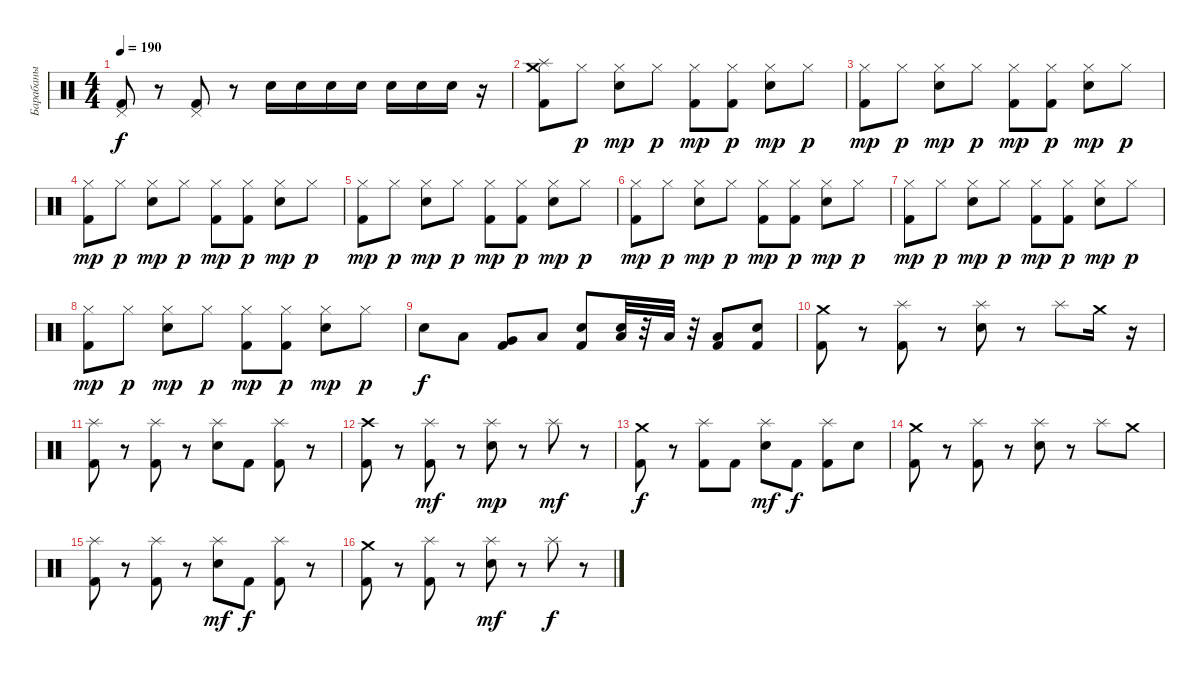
\track ("Барабаны" "Барабаны") {instrument percussion}
\staff {score}
\articulation defaults
\ts (4 4)
\tempo 190
\clef neutral
\ks c
("Pedal Hi-Hat (hit)" "Kick (hit) 2").8{dy f} r.8 ("Pedal Hi-Hat (hit)" "Kick (hit) 2").8 r.8 "Electric Snare (hit)".16 "Electric Snare (hit)".16 "Electric Snare (hit)".16 "Electric Snare (hit)".16 "Electric Snare (hit)".16 "Electric Snare (hit)".16 "Electric Snare (hit)".16 r.16 |
("Splash (hit)" "Crash medium (hit)" "Kick (hit) 2").8 "Hi-Hat (closed)".8{dy p} ("Hi-Hat (closed)" "Electric Snare (hit)").8{dy mp} "Hi-Hat (closed)".8{dy p} ("Hi-Hat (closed)" "Kick (hit) 2").8{dy mp} ("Hi-Hat (closed)" "Kick (hit) 2").8{dy p} ("Hi-Hat (closed)" "Electric Snare (hit)").8{dy mp} "Hi-Hat (closed)".8{dy p} |
("Hi-Hat (closed)" "Kick (hit) 2").8{dy mp} "Hi-Hat (closed)".8{dy p} ("Hi-Hat (closed)" "Electric Snare (hit)").8{dy mp} "Hi-Hat (closed)".8{dy p} ("Hi-Hat (closed)" "Kick (hit) 2").8{dy mp} ("Hi-Hat (closed)" "Kick (hit) 2").8{dy p} ("Hi-Hat (closed)" "Electric Snare (hit)").8{dy mp} "Hi-Hat (closed)".8{dy p} |
("Hi-Hat (closed)" "Kick (hit) 2").8{dy mp} "Hi-Hat (closed)".8{dy p} ("Hi-Hat (closed)" "Electric Snare (hit)").8{dy mp} "Hi-Hat (closed)".8{dy p} ("Hi-Hat (closed)" "Kick (hit) 2").8{dy mp} ("Hi-Hat (closed)" "Kick (hit) 2").8{dy p} ("Hi-Hat (closed)" "Electric Snare (hit)").8{dy mp} "Hi-Hat (closed)".8{dy p} |
("Hi-Hat (closed)" "Kick (hit) 2").8{dy mp} "Hi-Hat (closed)".8{dy p} ("Hi-Hat (closed)" "Electric Snare (hit)").8{dy mp} "Hi-Hat (closed)".8{dy p} ("Hi-Hat (closed)" "Kick (hit) 2").8{dy mp} ("Hi-Hat (closed)" "Kick (hit) 2").8{dy p} ("Hi-Hat (closed)" "Electric Snare (hit)").8{dy mp} "Hi-Hat (closed)".8{dy p} |
("Hi-Hat (closed)" "Kick (hit) 2").8{dy mp} "Hi-Hat (closed)".8{dy p} ("Hi-Hat (closed)" "Electric Snare (hit)").8{dy mp} "Hi-Hat (closed)".8{dy p} ("Hi-Hat (closed)" "Kick (hit) 2").8{dy mp} ("Hi-Hat (closed)" "Kick (hit) 2").8{dy p} ("Hi-Hat (closed)" "Electric Snare (hit)").8{dy mp} "Hi-Hat (closed)".8{dy p} |
("Hi-Hat (closed)" "Kick (hit) 2").8{dy mp} "Hi-Hat (closed)".8{dy p} ("Hi-Hat (closed)" "Electric Snare (hit)").8{dy mp} "Hi-Hat (closed)".8{dy p} ("Hi-Hat (closed)" "Kick (hit) 2").8{dy mp} ("Hi-Hat (closed)" "Kick (hit) 2").8{dy p} ("Hi-Hat (closed)" "Electric Snare (hit)").8{dy mp} "Hi-Hat (closed)".8{dy p} |
("Hi-Hat (closed)" "Kick (hit) 2").8{dy mp} "Hi-Hat (closed)".8{dy p} ("Hi-Hat (closed)" "Electric Snare (hit)").8{dy mp} "Hi-Hat (closed)".8{dy p} ("Hi-Hat (closed)" "Kick (hit) 2").8{dy mp} ("Hi-Hat (closed)" "Kick (hit) 2").8{dy p} ("Hi-Hat (closed)" "Electric Snare (hit)").8{dy mp} "Hi-Hat (closed)".8{dy p} |
"Electric Snare (hit)".8{dy f} "Low Tom (hit)".8 ("Kick (hit) 2" "Very Low Tom (hit)").8 "Low Tom (hit)".8 ("Electric Snare (hit)" "Kick (hit) 2").8 ("Electric Snare (hit)" "Low Tom (hit)").32 r.32 "Low Tom (hit)".32 r.32 ("Kick (hit) 2" "Low Tom (hit)").8 ("Kick (hit) 2" "Electric Snare (hit)").8 |
("Crash medium (hit)" "Kick (hit) 2").8 r.8 ("Splash (hit)" "Kick (hit) 2").8 r.8 ("Splash (hit)" "Electric Snare (hit)").8 r.8 "Splash (hit)".8 "Crash medium (hit)".16 r.16 |
("Splash (hit)" "Kick (hit) 2").8 r.8 ("Splash (hit)" "Kick (hit) 2").8 r.8 ("Splash (hit)" "Electric Snare (hit)").8 "Kick (hit) 2".8 ("Splash (hit)" "Kick (hit) 2").8 r.8 |
("Crash high (hit)" "Kick (hit) 2").8 r.8 ("Splash (hit)" "Kick (hit) 2").8{dy mf} r.8 ("Splash (hit)" "Electric Snare (hit)").8{dy mp} r.8 "Splash (hit)".8{dy mf} r.8 |
("Crash medium (hit)" "Kick (hit) 2").8{dy f} r.8 ("Splash (hit)" "Kick (hit) 2").8 "Kick (hit) 2".8 ("Splash (hit)" "Electric Snare (hit)").8{dy mf} "Kick (hit) 2".8{dy f} ("Splash (hit)" "Kick (hit) 2").8 "Electric Snare (hit)".8 |
("Crash medium (hit)" "Kick (hit) 2").8 r.8 ("Splash (hit)" "Kick (hit) 2").8 r.8 ("Splash (hit)" "Electric Snare (hit)").8 r.8 "Splash (hit)".8 "Crash medium (hit)".8 |
("Splash (hit)" "Kick (hit) 2").8 r.8 ("Splash (hit)" "Kick (hit) 2").8 r.8 ("Splash (hit)" "Electric Snare (hit)").8{dy mf} "Kick (hit) 2".8{dy f} ("Splash (hit)" "Kick (hit) 2").8 r.8 |
("Crash medium (hit)" "Kick (hit) 2").8 r.8 ("Splash (hit)" "Kick (hit) 2").8 r.8 ("Splash (hit)" "Electric Snare (hit)").8{dy mf} r.8 "Splash (hit)".8{dy f} r.8
